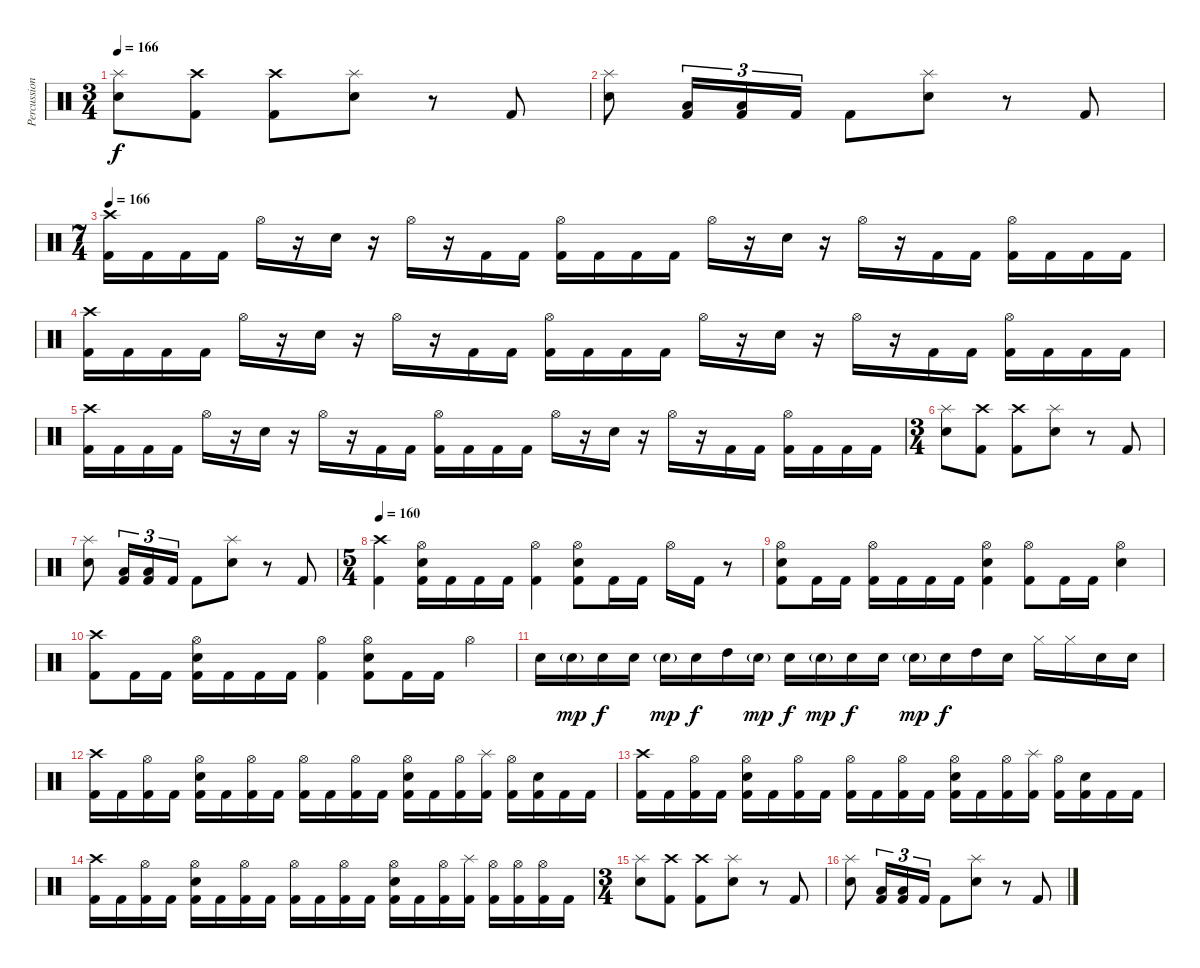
\track ("Percussion" "Percussion") {instrument percussion}
\staff {score}
\articulation defaults
\ts (3 4)
\tempo 166
\clef neutral
\ks c
("Splash (hit)" "Electric Snare (hit)").8{dy f} ("Crash high (hit)" "Kick (hit) 2").8 ("Crash high (hit)" "Kick (hit) 2").8 ("Splash (hit)" "Electric Snare (hit)").8 r.8 "Kick (hit) 2".8 |
("Splash (hit)" "Electric Snare (hit)").8 ("Low Floor Tom (hit)" "Kick (hit) 2").16{tu (3 2)} ("Low Tom (hit)" "Kick (hit) 2").16{tu (3 2)} "Kick (hit) 2".16{tu (3 2)} "Kick (hit) 2".8 ("Splash (hit)" "Electric Snare (hit)").8 r.8 "Kick (hit) 2".8 |
\ts (7 4)
\tempo 166
("Crash high (hit)" "Kick (hit) 2").16 "Kick (hit) 2".16 "Kick (hit) 2".16 "Kick (hit) 2".16 "Hi-Hat (open)".16 r.16 "Electric Snare (hit)".16 r.16 "Hi-Hat (open)".16 r.16 "Kick (hit) 2".16 "Kick (hit) 2".16 ("Hi-Hat (open)" "Kick (hit) 2").16 "Kick (hit) 2".16 "Kick (hit) 2".16 "Kick (hit) 2".16 "Hi-Hat (open)".16 r.16 "Electric Snare (hit)".16 r.16 "Hi-Hat (open)".16 r.16 "Kick (hit) 2".16 "Kick (hit) 2".16 ("Hi-Hat (open)" "Kick (hit) 2").16 "Kick (hit) 2".16 "Kick (hit) 2".16 "Kick (hit) 2".16 |
("Crash high (hit)" "Kick (hit) 2").16 "Kick (hit) 2".16 "Kick (hit) 2".16 "Kick (hit) 2".16 "Hi-Hat (open)".16 r.16 "Electric Snare (hit)".16 r.16 "Hi-Hat (open)".16 r.16 "Kick (hit) 2".16 "Kick (hit) 2".16 ("Hi-Hat (open)" "Kick (hit) 2").16 "Kick (hit) 2".16 "Kick (hit) 2".16 "Kick (hit) 2".16 "Hi-Hat (open)".16 r.16 "Electric Snare (hit)".16 r.16 "Hi-Hat (open)".16 r.16 "Kick (hit) 2".16 "Kick (hit) 2".16 ("Hi-Hat (open)" "Kick (hit) 2").16 "Kick (hit) 2".16 "Kick (hit) 2".16 "Kick (hit) 2".16 |
("Crash high (hit)" "Kick (hit) 2").16 "Kick (hit) 2".16 "Kick (hit) 2".16 "Kick (hit) 2".16 "Hi-Hat (open)".16 r.16 "Electric Snare (hit)".16 r.16 "Hi-Hat (open)".16 r.16 "Kick (hit) 2".16 "Kick (hit) 2".16 ("Hi-Hat (open)" "Kick (hit) 2").16 "Kick (hit) 2".16 "Kick (hit) 2".16 "Kick (hit) 2".16 "Hi-Hat (open)".16 r.16 "Electric Snare (hit)".16 r.16 "Hi-Hat (open)".16 r.16 "Kick (hit) 2".16 "Kick (hit) 2".16 ("Hi-Hat (open)" "Kick (hit) 2").16 "Kick (hit) 2".16 "Kick (hit) 2".16 "Kick (hit) 2".16 |
\ts (3 4)
("Splash (hit)" "Electric Snare (hit)").8 ("Crash high (hit)" "Kick (hit) 2").8 ("Crash high (hit)" "Kick (hit) 2").8 ("Splash (hit)" "Electric Snare (hit)").8 r.8 "Kick (hit) 2".8 |
("Splash (hit)" "Electric Snare (hit)").8 ("Low Floor Tom (hit)" "Kick (hit) 2").16{tu (3 2)} ("Low Tom (hit)" "Kick (hit) 2").16{tu (3 2)} "Kick (hit) 2".16{tu (3 2)} "Kick (hit) 2".8 ("Splash (hit)" "Electric Snare (hit)").8 r.8 "Kick (hit) 2".8 |
\ts (5 4)
\tempo 160
("Crash high (hit)" "Kick (hit) 2").4 ("Hi-Hat (open)" "Electric Snare (hit)" "Kick (hit) 2").16 "Kick (hit) 2".16 "Kick (hit) 2".16 "Kick (hit) 2".16 ("Hi-Hat (open)" "Kick (hit) 2").4 ("Hi-Hat (open)" "Electric Snare (hit)" "Kick (hit) 2").8 "Kick (hit) 2".16 "Kick (hit) 2".16 "Hi-Hat (open)".16 "Kick (hit) 2".16 r.8 |
("Hi-Hat (open)" "Electric Snare (hit)" "Kick (hit) 2").8 "Kick (hit) 2".16 "Kick (hit) 2".16 ("Hi-Hat (open)" "Kick (hit) 2").16 "Kick (hit) 2".16 "Kick (hit) 2".16 "Kick (hit) 2".16 ("Hi-Hat (open)" "Electric Snare (hit)" "Kick (hit) 2").4 ("Hi-Hat (open)" "Kick (hit) 2").8 "Kick (hit) 2".16 "Kick (hit) 2".16 ("Hi-Hat (open)" "Electric Snare (hit)").4 |
("Crash high (hit)" "Kick (hit) 2").8 "Kick (hit) 2".16 "Kick (hit) 2".16 ("Hi-Hat (open)" "Electric Snare (hit)" "Kick (hit) 2").16 "Kick (hit) 2".16 "Kick (hit) 2".16 "Kick (hit) 2".16 ("Hi-Hat (open)" "Kick (hit) 2").4 ("Hi-Hat (open)" "Electric Snare (hit)" "Kick (hit) 2").8 "Kick (hit) 2".16 "Kick (hit) 2".16 "Hi-Hat (open)".4 |
"Electric Snare (hit)".16 "Electric Snare (hit)"{g}.16{dy mp} "Electric Snare (hit)".16{dy f} "Electric Snare (hit)".16 "Electric Snare (hit)"{g}.16{dy mp} "Electric Snare (hit)".16{dy f} "High Tom (hit)".16 "Electric Snare (hit)"{g}.16{dy mp} "Electric Snare (hit)".16{dy f} "Electric Snare (hit)"{g}.16{dy mp} "Electric Snare (hit)".16{dy f} "Electric Snare (hit)".16 "Electric Snare (hit)"{g}.16{dy mp} "Electric Snare (hit)".16{dy f} "High Tom (hit)".16 "Electric Snare (hit)".16 "Hi-Hat (closed)".16 "Hi-Hat (closed)".16 "Electric Snare (hit)".16 "Electric Snare (hit)".16 |
("Crash high (hit)" "Kick (hit) 2").16 "Kick (hit) 2".16 ("Hi-Hat (open)" "Kick (hit) 2").16 "Kick (hit) 2".16 ("Hi-Hat (open)" "Electric Snare (hit)" "Kick (hit) 2").16 "Kick (hit) 2".16 ("Hi-Hat (open)" "Kick (hit) 2").16 "Kick (hit) 2".16 ("Hi-Hat (open)" "Kick (hit) 2").16 "Kick (hit) 2".16 ("Hi-Hat (open)" "Kick (hit) 2").16 "Kick (hit) 2".16 ("Hi-Hat (open)" "Electric Snare (hit)" "Kick (hit) 2").16 "Kick (hit) 2".16 ("Hi-Hat (open)" "Kick (hit) 2").16 ("Splash (hit)" "Kick (hit) 2").16 ("Hi-Hat (open)" "Kick (hit) 2").16 ("Electric Snare (hit)" "Kick (hit) 2").16 "Kick (hit) 2".16 "Kick (hit) 2".16 |
("Crash high (hit)" "Kick (hit) 2").16 "Kick (hit) 2".16 ("Hi-Hat (open)" "Kick (hit) 2").16 "Kick (hit) 2".16 ("Hi-Hat (open)" "Electric Snare (hit)" "Kick (hit) 2").16 "Kick (hit) 2".16 ("Hi-Hat (open)" "Kick (hit) 2").16 "Kick (hit) 2".16 ("Hi-Hat (open)" "Kick (hit) 2").16 "Kick (hit) 2".16 ("Hi-Hat (open)" "Kick (hit) 2").16 "Kick (hit) 2".16 ("Hi-Hat (open)" "Electric Snare (hit)" "Kick (hit) 2").16 "Kick (hit) 2".16 ("Hi-Hat (open)" "Kick (hit) 2").16 ("Splash (hit)" "Kick (hit) 2").16 ("Hi-Hat (open)" "Kick (hit) 2").16 ("Electric Snare (hit)" "Kick (hit) 2").16 "Kick (hit) 2".16 "Kick (hit) 2".16 |
("Crash high (hit)" "Kick (hit) 2").16 "Kick (hit) 2".16 ("Hi-Hat (open)" "Kick (hit) 2").16 "Kick (hit) 2".16 ("Hi-Hat (open)" "Electric Snare (hit)" "Kick (hit) 2").16 "Kick (hit) 2".16 ("Hi-Hat (open)" "Kick (hit) 2").16 "Kick (hit) 2".16 ("Hi-Hat (open)" "Kick (hit) 2").16 "Kick (hit) 2".16 ("Hi-Hat (open)" "Kick (hit) 2").16 "Kick (hit) 2".16 ("Hi-Hat (open)" "Electric Snare (hit)" "Kick (hit) 2").16 "Kick (hit) 2".16 ("Hi-Hat (open)" "Kick (hit) 2").16 ("Splash (hit)" "Kick (hit) 2").16 ("Hi-Hat (open)" "Kick (hit) 2").16 ("Hi-Hat (open)" "Kick (hit) 2").16 ("Hi-Hat (open)" "Kick (hit) 2").16 "Kick (hit) 2".16 |
\ts (3 4)
("Splash (hit)" "Electric Snare (hit)").8 ("Crash high (hit)" "Kick (hit) 2").8 ("Crash high (hit)" "Kick (hit) 2").8 ("Splash (hit)" "Electric Snare (hit)").8 r.8 "Kick (hit) 2".8 |
("Splash (hit)" "Electric Snare (hit)").8 ("Low Floor Tom (hit)" "Kick (hit) 2").16{tu (3 2)} ("Low Tom (hit)" "Kick (hit) 2").16{tu (3 2)} "Kick (hit) 2".16{tu (3 2)} "Kick (hit) 2".8 ("Splash (hit)" "Electric Snare (hit)").8 r.8 "Kick (hit) 2".8
